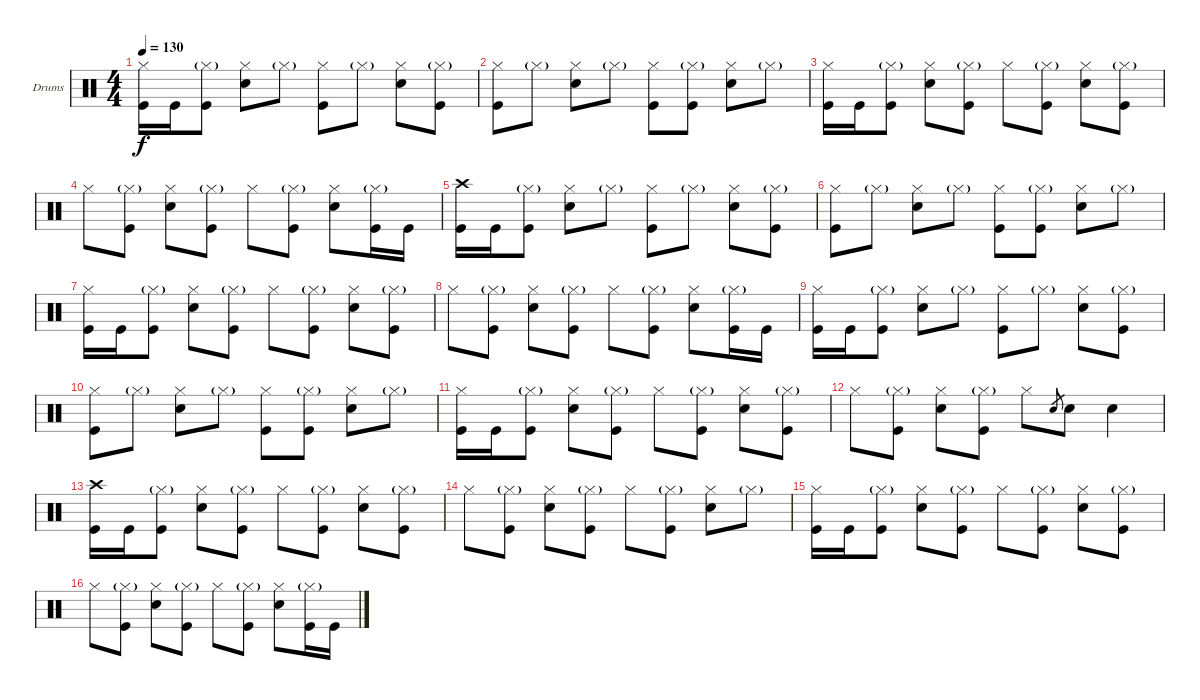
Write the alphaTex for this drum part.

\bracketExtendMode groupsimilarinstruments
\firstSystemTrackNameOrientation horizontal
\otherSystemsTrackNameOrientation horizontal
\track ("Drumkit" "Drums") {instrument percussion}
\staff {score}
\articulation defaults
\ts (4 4)
\tempo 130
\clef neutral
\ks c
("Kick (hit)" "Hi-Hat (closed)").16{dy f} "Kick (hit)".16 ("Kick (hit)" "Hi-Hat (closed)"{g}).8 ("Snare (hit) 2" "Hi-Hat (closed)").8 "Hi-Hat (closed)"{g}.8 ("Hi-Hat (closed)" "Kick (hit)").8 "Hi-Hat (closed)"{g}.8 ("Snare (hit) 2" "Hi-Hat (closed)").8 ("Hi-Hat (closed)"{g} "Kick (hit)").8 |
("Hi-Hat (closed)" "Kick (hit)").8 "Hi-Hat (closed)"{g}.8 ("Snare (hit) 2" "Hi-Hat (closed)").8 "Hi-Hat (closed)"{g}.8 ("Hi-Hat (closed)" "Kick (hit)").8 ("Kick (hit)" "Hi-Hat (closed)"{g}).8 ("Snare (hit) 2" "Hi-Hat (closed)").8 "Hi-Hat (closed)"{g}.8 |
("Kick (hit)" "Hi-Hat (closed)").16 "Kick (hit)".16 ("Kick (hit)" "Hi-Hat (closed)"{g}).8 ("Snare (hit) 2" "Hi-Hat (closed)").8 ("Kick (hit)" "Hi-Hat (closed)"{g}).8 "Hi-Hat (closed)".8 ("Kick (hit)" "Hi-Hat (closed)"{g}).8 ("Snare (hit) 2" "Hi-Hat (closed)").8 ("Kick (hit)" "Hi-Hat (closed)"{g}).8 |
"Hi-Hat (closed)".8 ("Kick (hit)" "Hi-Hat (closed)"{g}).8 ("Snare (hit) 2" "Hi-Hat (closed)").8 ("Kick (hit)" "Hi-Hat (closed)"{g}).8 "Hi-Hat (closed)".8 ("Kick (hit)" "Hi-Hat (closed)"{g}).8 ("Snare (hit) 2" "Hi-Hat (closed)").8 ("Hi-Hat (closed)"{g} "Kick (hit)").16 "Kick (hit)".16 |
("Crash high (hit)" "Kick (hit)").16 "Kick (hit)".16 ("Kick (hit)" "Hi-Hat (closed)"{g}).8 ("Snare (hit) 2" "Hi-Hat (closed)").8 "Hi-Hat (closed)"{g}.8 ("Hi-Hat (closed)" "Kick (hit)").8 "Hi-Hat (closed)"{g}.8 ("Snare (hit) 2" "Hi-Hat (closed)").8 ("Hi-Hat (closed)"{g} "Kick (hit)").8 |
("Hi-Hat (closed)" "Kick (hit)").8 "Hi-Hat (closed)"{g}.8 ("Snare (hit) 2" "Hi-Hat (closed)").8 "Hi-Hat (closed)"{g}.8 ("Hi-Hat (closed)" "Kick (hit)").8 ("Kick (hit)" "Hi-Hat (closed)"{g}).8 ("Snare (hit) 2" "Hi-Hat (closed)").8 "Hi-Hat (closed)"{g}.8 |
("Kick (hit)" "Hi-Hat (closed)").16 "Kick (hit)".16 ("Kick (hit)" "Hi-Hat (closed)"{g}).8 ("Snare (hit) 2" "Hi-Hat (closed)").8 ("Kick (hit)" "Hi-Hat (closed)"{g}).8 "Hi-Hat (closed)".8 ("Kick (hit)" "Hi-Hat (closed)"{g}).8 ("Snare (hit) 2" "Hi-Hat (closed)").8 ("Kick (hit)" "Hi-Hat (closed)"{g}).8 |
"Hi-Hat (closed)".8 ("Kick (hit)" "Hi-Hat (closed)"{g}).8 ("Snare (hit) 2" "Hi-Hat (closed)").8 ("Kick (hit)" "Hi-Hat (closed)"{g}).8 "Hi-Hat (closed)".8 ("Kick (hit)" "Hi-Hat (closed)"{g}).8 ("Snare (hit) 2" "Hi-Hat (closed)").8 ("Hi-Hat (closed)"{g} "Kick (hit)").16 "Kick (hit)".16 |
("Kick (hit)" "Hi-Hat (closed)").16 "Kick (hit)".16 ("Kick (hit)" "Hi-Hat (closed)"{g}).8 ("Snare (hit) 2" "Hi-Hat (closed)").8 "Hi-Hat (closed)"{g}.8 ("Hi-Hat (closed)" "Kick (hit)").8 "Hi-Hat (closed)"{g}.8 ("Snare (hit) 2" "Hi-Hat (closed)").8 ("Hi-Hat (closed)"{g} "Kick (hit)").8 |
("Hi-Hat (closed)" "Kick (hit)").8 "Hi-Hat (closed)"{g}.8 ("Snare (hit) 2" "Hi-Hat (closed)").8 "Hi-Hat (closed)"{g}.8 ("Hi-Hat (closed)" "Kick (hit)").8 ("Kick (hit)" "Hi-Hat (closed)"{g}).8 ("Snare (hit) 2" "Hi-Hat (closed)").8 "Hi-Hat (closed)"{g}.8 |
("Kick (hit)" "Hi-Hat (closed)").16 "Kick (hit)".16 ("Kick (hit)" "Hi-Hat (closed)"{g}).8 ("Snare (hit) 2" "Hi-Hat (closed)").8 ("Kick (hit)" "Hi-Hat (closed)"{g}).8 "Hi-Hat (closed)".8 ("Kick (hit)" "Hi-Hat (closed)"{g}).8 ("Snare (hit) 2" "Hi-Hat (closed)").8 ("Kick (hit)" "Hi-Hat (closed)"{g}).8 |
"Hi-Hat (closed)".8 ("Kick (hit)" "Hi-Hat (closed)"{g}).8 ("Snare (hit) 2" "Hi-Hat (closed)").8 ("Kick (hit)" "Hi-Hat (closed)"{g}).8 "Hi-Hat (closed)".8 "Snare (hit) 2".8{gr} "Snare (hit) 2".8 "Snare (hit) 2".4 |
("Crash high (hit)" "Kick (hit)").16 "Kick (hit)".16 ("Kick (hit)" "Hi-Hat (closed)"{g}).8 ("Snare (hit) 2" "Hi-Hat (closed)").8 ("Hi-Hat (closed)"{g} "Kick (hit)").8 "Hi-Hat (closed)".8 ("Hi-Hat (closed)"{g} "Kick (hit)").8 ("Snare (hit) 2" "Hi-Hat (closed)").8 ("Hi-Hat (closed)"{g} "Kick (hit)").8 |
"Hi-Hat (closed)".8 ("Hi-Hat (closed)"{g} "Kick (hit)").8 ("Snare (hit) 2" "Hi-Hat (closed)").8 ("Hi-Hat (closed)"{g} "Kick (hit)").8 "Hi-Hat (closed)".8 ("Kick (hit)" "Hi-Hat (closed)"{g}).8 ("Snare (hit) 2" "Hi-Hat (closed)").8 "Hi-Hat (closed)"{g}.8 |
("Kick (hit)" "Hi-Hat (closed)").16 "Kick (hit)".16 ("Kick (hit)" "Hi-Hat (closed)"{g}).8 ("Snare (hit) 2" "Hi-Hat (closed)").8 ("Kick (hit)" "Hi-Hat (closed)"{g}).8 "Hi-Hat (closed)".8 ("Kick (hit)" "Hi-Hat (closed)"{g}).8 ("Snare (hit) 2" "Hi-Hat (closed)").8 ("Kick (hit)" "Hi-Hat (closed)"{g}).8 |
"Hi-Hat (closed)".8 ("Kick (hit)" "Hi-Hat (closed)"{g}).8 ("Snare (hit) 2" "Hi-Hat (closed)").8 ("Kick (hit)" "Hi-Hat (closed)"{g}).8 "Hi-Hat (closed)".8 ("Kick (hit)" "Hi-Hat (closed)"{g}).8 ("Snare (hit) 2" "Hi-Hat (closed)").8 ("Hi-Hat (closed)"{g} "Kick (hit)").16 "Kick (hit)".16
